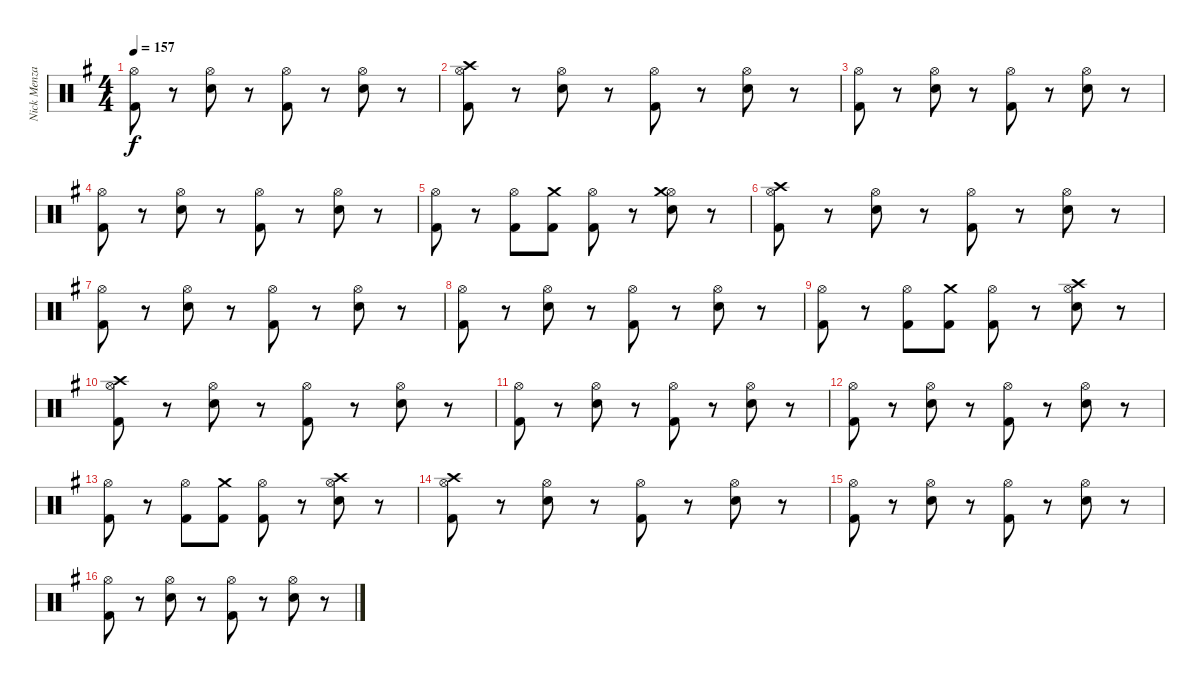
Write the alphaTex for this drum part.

\track ("Nick Menza" "Nick Menza") {instrument percussion}
\staff {score}
\articulation defaults
\ts (4 4)
\tempo 157
\clef neutral
\ks g
("Hi-Hat (open)" "Kick (hit) 2").8{dy f} r.8 ("Hi-Hat (open)" "Snare (hit) 2").8 r.8 ("Hi-Hat (open)" "Kick (hit) 2").8 r.8 ("Hi-Hat (open)" "Snare (hit) 2").8 r.8 |
("Hi-Hat (open)" "Kick (hit) 2" "Crash high (hit)").8 r.8 ("Hi-Hat (open)" "Snare (hit) 2").8 r.8 ("Hi-Hat (open)" "Kick (hit) 2").8 r.8 ("Hi-Hat (open)" "Snare (hit) 2").8 r.8 |
("Hi-Hat (open)" "Kick (hit) 2").8 r.8 ("Hi-Hat (open)" "Snare (hit) 2").8 r.8 ("Hi-Hat (open)" "Kick (hit) 2").8 r.8 ("Hi-Hat (open)" "Snare (hit) 2").8 r.8 |
("Hi-Hat (open)" "Kick (hit) 2").8 r.8 ("Hi-Hat (open)" "Snare (hit) 2").8 r.8 ("Hi-Hat (open)" "Kick (hit) 2").8 r.8 ("Hi-Hat (open)" "Snare (hit) 2").8 r.8 |
("Hi-Hat (open)" "Kick (hit) 2").8 r.8 ("Hi-Hat (open)" "Kick (hit) 2").8 ("Kick (hit) 2" "Crash medium (hit)").8 ("Hi-Hat (open)" "Kick (hit) 2").8 r.8 ("Hi-Hat (open)" "Snare (hit) 2" "Crash medium (hit)").8 r.8 |
("Hi-Hat (open)" "Kick (hit) 2" "Crash high (hit)").8 r.8 ("Hi-Hat (open)" "Snare (hit) 2").8 r.8 ("Hi-Hat (open)" "Kick (hit) 2").8 r.8 ("Hi-Hat (open)" "Snare (hit) 2").8 r.8 |
("Hi-Hat (open)" "Kick (hit) 2").8 r.8 ("Hi-Hat (open)" "Snare (hit) 2").8 r.8 ("Hi-Hat (open)" "Kick (hit) 2").8 r.8 ("Hi-Hat (open)" "Snare (hit) 2").8 r.8 |
("Hi-Hat (open)" "Kick (hit) 2").8 r.8 ("Hi-Hat (open)" "Snare (hit) 2").8 r.8 ("Hi-Hat (open)" "Kick (hit) 2").8 r.8 ("Hi-Hat (open)" "Snare (hit) 2").8 r.8 |
("Hi-Hat (open)" "Kick (hit) 2").8 r.8 ("Hi-Hat (open)" "Kick (hit) 2").8 ("Kick (hit) 2" "Crash medium (hit)").8 ("Hi-Hat (open)" "Kick (hit) 2").8 r.8 ("Hi-Hat (open)" "Snare (hit) 2" "Crash high (hit)").8 r.8 |
("Hi-Hat (open)" "Kick (hit) 2" "Crash high (hit)").8 r.8 ("Hi-Hat (open)" "Snare (hit) 2").8 r.8 ("Hi-Hat (open)" "Kick (hit) 2").8 r.8 ("Hi-Hat (open)" "Snare (hit) 2").8 r.8 |
("Hi-Hat (open)" "Kick (hit) 2").8 r.8 ("Hi-Hat (open)" "Snare (hit) 2").8 r.8 ("Hi-Hat (open)" "Kick (hit) 2").8 r.8 ("Hi-Hat (open)" "Snare (hit) 2").8 r.8 |
("Hi-Hat (open)" "Kick (hit) 2").8 r.8 ("Hi-Hat (open)" "Snare (hit) 2").8 r.8 ("Hi-Hat (open)" "Kick (hit) 2").8 r.8 ("Hi-Hat (open)" "Snare (hit) 2").8 r.8 |
("Hi-Hat (open)" "Kick (hit) 2").8 r.8 ("Hi-Hat (open)" "Kick (hit) 2").8 ("Kick (hit) 2" "Crash medium (hit)").8 ("Hi-Hat (open)" "Kick (hit) 2").8 r.8 ("Hi-Hat (open)" "Snare (hit) 2" "Crash high (hit)").8 r.8 |
("Hi-Hat (open)" "Kick (hit) 2" "Crash high (hit)").8 r.8 ("Hi-Hat (open)" "Snare (hit) 2").8 r.8 ("Hi-Hat (open)" "Kick (hit) 2").8 r.8 ("Hi-Hat (open)" "Snare (hit) 2").8 r.8 |
("Hi-Hat (open)" "Kick (hit) 2").8 r.8 ("Hi-Hat (open)" "Snare (hit) 2").8 r.8 ("Hi-Hat (open)" "Kick (hit) 2").8 r.8 ("Hi-Hat (open)" "Snare (hit) 2").8 r.8 |
("Hi-Hat (open)" "Kick (hit) 2").8 r.8 ("Hi-Hat (open)" "Snare (hit) 2").8 r.8 ("Hi-Hat (open)" "Kick (hit) 2").8 r.8 ("Hi-Hat (open)" "Snare (hit) 2").8 r.8
